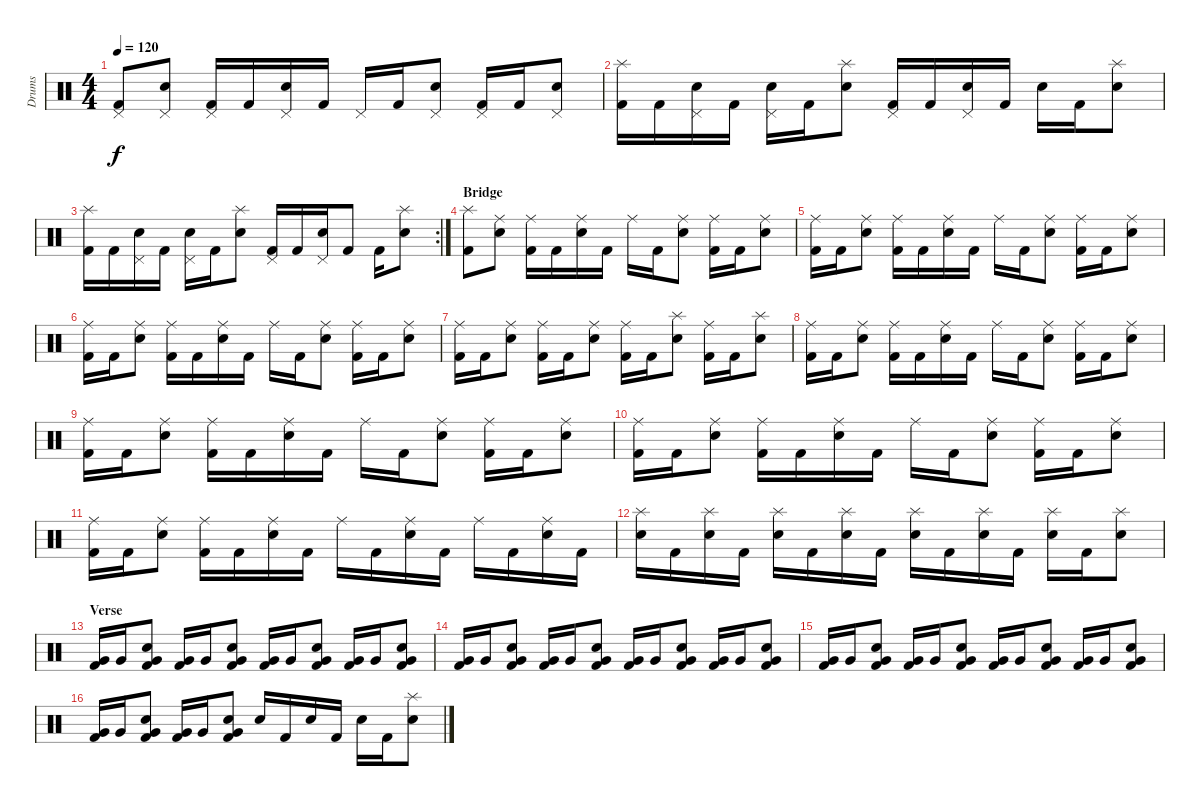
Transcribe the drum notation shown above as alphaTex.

\track ("Drums" "Drums") {instrument percussion}
\staff {score}
\articulation defaults
\ts (4 4)
\tempo 120
\clef neutral
\ks c
("Pedal Hi-Hat (hit)" "Kick (hit) 2").8{dy f} ("Pedal Hi-Hat (hit)" "Electric Snare (hit)").8 ("Pedal Hi-Hat (hit)" "Kick (hit) 2").16 "Kick (hit) 2".16 ("Pedal Hi-Hat (hit)" "Electric Snare (hit)").16 "Kick (hit) 2".16 "Pedal Hi-Hat (hit)".16 "Kick (hit) 2".16 ("Pedal Hi-Hat (hit)" "Electric Snare (hit)").8 ("Pedal Hi-Hat (hit)" "Kick (hit) 2").16 "Kick (hit) 2".16 ("Pedal Hi-Hat (hit)" "Electric Snare (hit)").8 |
("Splash (hit)" "Kick (hit) 2").16 "Kick (hit) 2".16 ("Pedal Hi-Hat (hit)" "Electric Snare (hit)").16 "Kick (hit) 2".16 ("Pedal Hi-Hat (hit)" "Electric Snare (hit)").16 "Kick (hit) 2".16 ("Splash (hit)" "Electric Snare (hit)").8 ("Pedal Hi-Hat (hit)" "Kick (hit) 2").16 "Kick (hit) 2".16 ("Pedal Hi-Hat (hit)" "Electric Snare (hit)").16 "Kick (hit) 2".16 "Electric Snare (hit)".16 "Kick (hit) 2".16 ("Splash (hit)" "Electric Snare (hit)").8 |
\rc 2
("Splash (hit)" "Kick (hit) 2").16 "Kick (hit) 2".16 ("Pedal Hi-Hat (hit)" "Electric Snare (hit)").16 "Kick (hit) 2".16 ("Pedal Hi-Hat (hit)" "Electric Snare (hit)").16 "Kick (hit) 2".16 ("Splash (hit)" "Electric Snare (hit)").8 ("Pedal Hi-Hat (hit)" "Kick (hit) 2").16 "Kick (hit) 2".16 ("Pedal Hi-Hat (hit)" "Electric Snare (hit)").16 "Kick (hit) 2".8 "Kick (hit) 2".16 ("Splash (hit)" "Electric Snare (hit)").8 |
\section ("" "Bridge")
("Splash (hit)" "Kick (hit) 2").8 ("Ride (middle)" "Electric Snare (hit)").8 ("Ride (middle)" "Kick (hit) 2").16 "Kick (hit) 2".16 ("Ride (middle)" "Electric Snare (hit)").16 "Kick (hit) 2".16 "Ride (middle)".16 "Kick (hit) 2".16 ("Ride (middle)" "Electric Snare (hit)").8 ("Ride (middle)" "Kick (hit) 2").16 "Kick (hit) 2".16 ("Ride (middle)" "Electric Snare (hit)").8 |
("Ride (middle)" "Kick (hit) 2").16 "Kick (hit) 2".16 ("Ride (middle)" "Electric Snare (hit)").8 ("Ride (middle)" "Kick (hit) 2").16 "Kick (hit) 2".16 ("Ride (middle)" "Electric Snare (hit)").16 "Kick (hit) 2".16 "Ride (middle)".16 "Kick (hit) 2".16 ("Ride (middle)" "Electric Snare (hit)").8 ("Ride (middle)" "Kick (hit) 2").16 "Kick (hit) 2".16 ("Ride (middle)" "Electric Snare (hit)").8 |
("Ride (middle)" "Kick (hit) 2").16 "Kick (hit) 2".16 ("Ride (middle)" "Electric Snare (hit)").8 ("Ride (middle)" "Kick (hit) 2").16 "Kick (hit) 2".16 ("Ride (middle)" "Electric Snare (hit)").16 "Kick (hit) 2".16 "Ride (middle)".16 "Kick (hit) 2".16 ("Ride (middle)" "Electric Snare (hit)").8 ("Ride (middle)" "Kick (hit) 2").16 "Kick (hit) 2".16 ("Ride (middle)" "Electric Snare (hit)").8 |
("Ride (middle)" "Kick (hit) 2").16 "Kick (hit) 2".16 ("Ride (middle)" "Electric Snare (hit)").8 ("Ride (middle)" "Kick (hit) 2").16 "Kick (hit) 2".16 ("Ride (middle)" "Electric Snare (hit)").8 ("Ride (middle)" "Kick (hit) 2").16 "Kick (hit) 2".16 ("Splash (hit)" "Electric Snare (hit)").8 ("Ride (middle)" "Kick (hit) 2").16 "Kick (hit) 2".16 ("Splash (hit)" "Electric Snare (hit)").8 |
("Ride (middle)" "Kick (hit) 2").16 "Kick (hit) 2".16 ("Ride (middle)" "Electric Snare (hit)").8 ("Ride (middle)" "Kick (hit) 2").16 "Kick (hit) 2".16 ("Ride (middle)" "Electric Snare (hit)").16 "Kick (hit) 2".16 "Ride (middle)".16 "Kick (hit) 2".16 ("Ride (middle)" "Electric Snare (hit)").8 ("Ride (middle)" "Kick (hit) 2").16 "Kick (hit) 2".16 ("Ride (middle)" "Electric Snare (hit)").8 |
("Ride (middle)" "Kick (hit) 2").16 "Kick (hit) 2".16 ("Ride (middle)" "Electric Snare (hit)").8 ("Ride (middle)" "Kick (hit) 2").16 "Kick (hit) 2".16 ("Ride (middle)" "Electric Snare (hit)").16 "Kick (hit) 2".16 "Ride (middle)".16 "Kick (hit) 2".16 ("Ride (middle)" "Electric Snare (hit)").8 ("Ride (middle)" "Kick (hit) 2").16 "Kick (hit) 2".16 ("Ride (middle)" "Electric Snare (hit)").8 |
("Ride (middle)" "Kick (hit) 2").16 "Kick (hit) 2".16 ("Ride (middle)" "Electric Snare (hit)").8 ("Ride (middle)" "Kick (hit) 2").16 "Kick (hit) 2".16 ("Ride (middle)" "Electric Snare (hit)").16 "Kick (hit) 2".16 "Ride (middle)".16 "Kick (hit) 2".16 ("Ride (middle)" "Electric Snare (hit)").8 ("Ride (middle)" "Kick (hit) 2").16 "Kick (hit) 2".16 ("Ride (middle)" "Electric Snare (hit)").8 |
("Ride (middle)" "Kick (hit) 2").16 "Kick (hit) 2".16 ("Ride (middle)" "Electric Snare (hit)").8 ("Ride (middle)" "Kick (hit) 2").16 "Kick (hit) 2".16 ("Ride (middle)" "Electric Snare (hit)").16 "Kick (hit) 2".16 "Ride (middle)".16 "Kick (hit) 2".16 ("Ride (middle)" "Electric Snare (hit)").16 "Kick (hit) 2".16 "Ride (middle)".16 "Kick (hit) 2".16 ("Ride (middle)" "Electric Snare (hit)").16 "Kick (hit) 2".16 |
("Splash (hit)" "Electric Snare (hit)").16 "Kick (hit) 2".16 ("Splash (hit)" "Electric Snare (hit)").16 "Kick (hit) 2".16 ("Splash (hit)" "Electric Snare (hit)").16 "Kick (hit) 2".16 ("Splash (hit)" "Electric Snare (hit)").16 "Kick (hit) 2".16 ("Splash (hit)" "Electric Snare (hit)").16 "Kick (hit) 2".16 ("Splash (hit)" "Electric Snare (hit)").16 "Kick (hit) 2".16 ("Splash (hit)" "Electric Snare (hit)").16 "Kick (hit) 2".16 ("Splash (hit)" "Electric Snare (hit)").8 |
\section ("" "Verse")
("Very Low Tom (hit)" "Kick (hit) 2").16 "Very Low Tom (hit)".16 ("Very Low Tom (hit)" "Electric Snare (hit)" "Kick (hit) 2").8 ("Very Low Tom (hit)" "Kick (hit) 2").16 "Very Low Tom (hit)".16 ("Very Low Tom (hit)" "Electric Snare (hit)" "Kick (hit) 2").8 ("Very Low Tom (hit)" "Kick (hit) 2").16 "Very Low Tom (hit)".16 ("Very Low Tom (hit)" "Electric Snare (hit)" "Kick (hit) 2").8 ("Very Low Tom (hit)" "Kick (hit) 2").16 "Very Low Tom (hit)".16 ("Very Low Tom (hit)" "Electric Snare (hit)" "Kick (hit) 2").8 |
("Very Low Tom (hit)" "Kick (hit) 2").16 "Very Low Tom (hit)".16 ("Very Low Tom (hit)" "Electric Snare (hit)" "Kick (hit) 2").8 ("Very Low Tom (hit)" "Kick (hit) 2").16 "Very Low Tom (hit)".16 ("Very Low Tom (hit)" "Electric Snare (hit)" "Kick (hit) 2").8 ("Very Low Tom (hit)" "Kick (hit) 2").16 "Very Low Tom (hit)".16 ("Very Low Tom (hit)" "Electric Snare (hit)" "Kick (hit) 2").8 ("Very Low Tom (hit)" "Kick (hit) 2").16 "Very Low Tom (hit)".16 ("Very Low Tom (hit)" "Electric Snare (hit)" "Kick (hit) 2").8 |
("Very Low Tom (hit)" "Kick (hit) 2").16 "Very Low Tom (hit)".16 ("Very Low Tom (hit)" "Electric Snare (hit)" "Kick (hit) 2").8 ("Very Low Tom (hit)" "Kick (hit) 2").16 "Very Low Tom (hit)".16 ("Very Low Tom (hit)" "Electric Snare (hit)" "Kick (hit) 2").8 ("Very Low Tom (hit)" "Kick (hit) 2").16 "Very Low Tom (hit)".16 ("Very Low Tom (hit)" "Electric Snare (hit)" "Kick (hit) 2").8 ("Very Low Tom (hit)" "Kick (hit) 2").16 "Very Low Tom (hit)".16 ("Very Low Tom (hit)" "Electric Snare (hit)" "Kick (hit) 2").8 |
("Very Low Tom (hit)" "Kick (hit) 2").16 "Very Low Tom (hit)".16 ("Very Low Tom (hit)" "Electric Snare (hit)" "Kick (hit) 2").8 ("Very Low Tom (hit)" "Kick (hit) 2").16 "Very Low Tom (hit)".16 ("Very Low Tom (hit)" "Electric Snare (hit)" "Kick (hit) 2").8 "Electric Snare (hit)".16 "Kick (hit) 2".16 "Electric Snare (hit)".16 "Kick (hit) 2".16 "Electric Snare (hit)".16 "Kick (hit) 2".16 ("Splash (hit)" "Electric Snare (hit)").8
